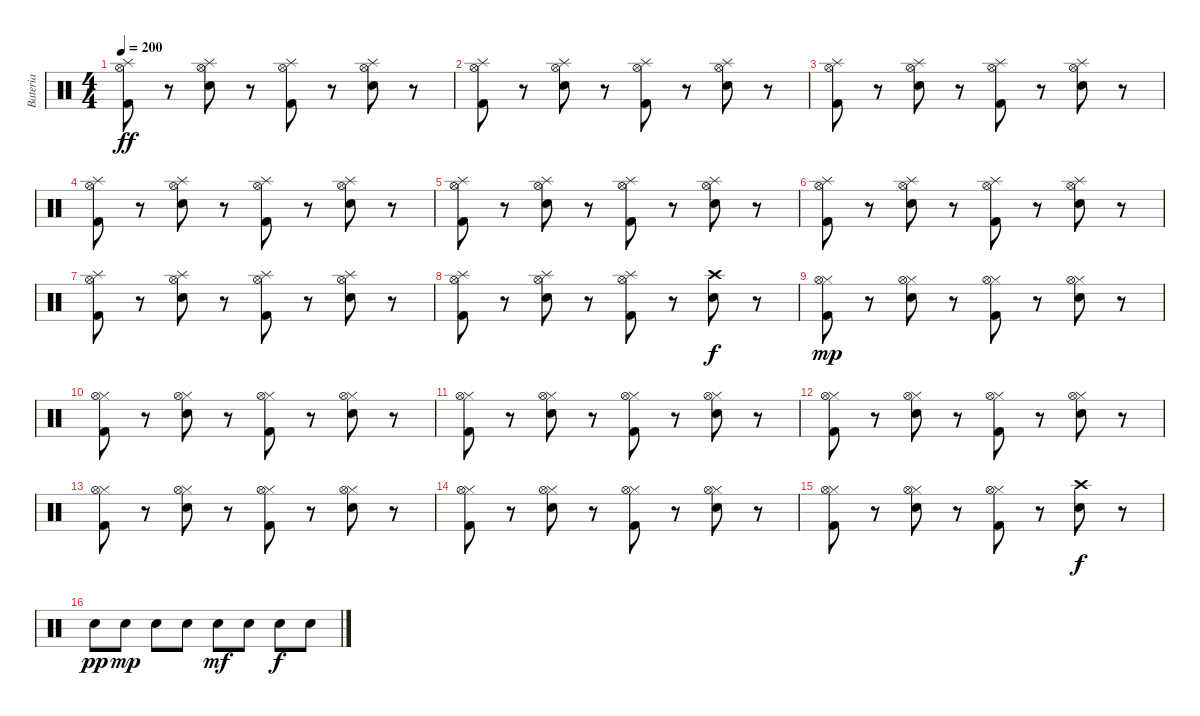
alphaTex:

\track ("Bateria" "Bateria") {instrument percussion}
\staff {score}
\articulation defaults
\ts (4 4)
\tempo 200
\clef neutral
\ks c
("Splash (hit)" "Hi-Hat (open)" "Kick (hit) 2").8{dy ff} r.8 ("Splash (hit)" "Hi-Hat (open)" "Snare (hit) 2").8 r.8 ("Splash (hit)" "Hi-Hat (open)" "Kick (hit) 2").8 r.8 ("Splash (hit)" "Hi-Hat (open)" "Snare (hit) 2").8 r.8 |
("Splash (hit)" "Hi-Hat (open)" "Kick (hit) 2").8 r.8 ("Splash (hit)" "Hi-Hat (open)" "Snare (hit) 2").8 r.8 ("Splash (hit)" "Hi-Hat (open)" "Kick (hit) 2").8 r.8 ("Splash (hit)" "Hi-Hat (open)" "Snare (hit) 2").8 r.8 |
("Splash (hit)" "Hi-Hat (open)" "Kick (hit) 2").8 r.8 ("Splash (hit)" "Hi-Hat (open)" "Snare (hit) 2").8 r.8 ("Splash (hit)" "Hi-Hat (open)" "Kick (hit) 2").8 r.8 ("Splash (hit)" "Hi-Hat (open)" "Snare (hit) 2").8 r.8 |
("Splash (hit)" "Hi-Hat (open)" "Kick (hit) 2").8 r.8 ("Splash (hit)" "Hi-Hat (open)" "Snare (hit) 2").8 r.8 ("Splash (hit)" "Hi-Hat (open)" "Kick (hit) 2").8 r.8 ("Splash (hit)" "Hi-Hat (open)" "Snare (hit) 2").8 r.8 |
("Splash (hit)" "Hi-Hat (open)" "Kick (hit) 2").8 r.8 ("Splash (hit)" "Hi-Hat (open)" "Snare (hit) 2").8 r.8 ("Splash (hit)" "Hi-Hat (open)" "Kick (hit) 2").8 r.8 ("Splash (hit)" "Hi-Hat (open)" "Snare (hit) 2").8 r.8 |
("Splash (hit)" "Hi-Hat (open)" "Kick (hit) 2").8 r.8 ("Splash (hit)" "Hi-Hat (open)" "Snare (hit) 2").8 r.8 ("Splash (hit)" "Hi-Hat (open)" "Kick (hit) 2").8 r.8 ("Splash (hit)" "Hi-Hat (open)" "Snare (hit) 2").8 r.8 |
("Splash (hit)" "Hi-Hat (open)" "Kick (hit) 2").8 r.8 ("Splash (hit)" "Hi-Hat (open)" "Snare (hit) 2").8 r.8 ("Splash (hit)" "Hi-Hat (open)" "Kick (hit) 2").8 r.8 ("Splash (hit)" "Hi-Hat (open)" "Snare (hit) 2").8 r.8 |
("Splash (hit)" "Hi-Hat (open)" "Kick (hit) 2").8 r.8 ("Splash (hit)" "Hi-Hat (open)" "Snare (hit) 2").8 r.8 ("Splash (hit)" "Hi-Hat (open)" "Kick (hit) 2").8 r.8 ("Crash high (hit)" "Snare (hit) 2").8{dy f} r.8 |
("Hi-Hat (closed)" "Hi-Hat (open)" "Kick (hit) 2").8{dy mp} r.8 ("Hi-Hat (closed)" "Hi-Hat (open)" "Snare (hit) 2").8 r.8 ("Hi-Hat (closed)" "Hi-Hat (open)" "Kick (hit) 2").8 r.8 ("Hi-Hat (closed)" "Hi-Hat (open)" "Snare (hit) 2").8 r.8 |
("Hi-Hat (closed)" "Hi-Hat (open)" "Kick (hit) 2").8 r.8 ("Hi-Hat (closed)" "Hi-Hat (open)" "Snare (hit) 2").8 r.8 ("Hi-Hat (closed)" "Hi-Hat (open)" "Kick (hit) 2").8 r.8 ("Hi-Hat (closed)" "Hi-Hat (open)" "Snare (hit) 2").8 r.8 |
("Hi-Hat (closed)" "Hi-Hat (open)" "Kick (hit) 2").8 r.8 ("Hi-Hat (closed)" "Hi-Hat (open)" "Snare (hit) 2").8 r.8 ("Hi-Hat (closed)" "Hi-Hat (open)" "Kick (hit) 2").8 r.8 ("Hi-Hat (closed)" "Hi-Hat (open)" "Snare (hit) 2").8 r.8 |
("Hi-Hat (closed)" "Hi-Hat (open)" "Kick (hit) 2").8 r.8 ("Hi-Hat (closed)" "Hi-Hat (open)" "Snare (hit) 2").8 r.8 ("Hi-Hat (closed)" "Hi-Hat (open)" "Kick (hit) 2").8 r.8 ("Hi-Hat (closed)" "Hi-Hat (open)" "Snare (hit) 2").8 r.8 |
("Hi-Hat (closed)" "Hi-Hat (open)" "Kick (hit) 2").8 r.8 ("Hi-Hat (closed)" "Hi-Hat (open)" "Snare (hit) 2").8 r.8 ("Hi-Hat (closed)" "Hi-Hat (open)" "Kick (hit) 2").8 r.8 ("Hi-Hat (closed)" "Hi-Hat (open)" "Snare (hit) 2").8 r.8 |
("Hi-Hat (closed)" "Hi-Hat (open)" "Kick (hit) 2").8 r.8 ("Hi-Hat (closed)" "Hi-Hat (open)" "Snare (hit) 2").8 r.8 ("Hi-Hat (closed)" "Hi-Hat (open)" "Kick (hit) 2").8 r.8 ("Hi-Hat (closed)" "Hi-Hat (open)" "Snare (hit) 2").8 r.8 |
("Hi-Hat (closed)" "Hi-Hat (open)" "Kick (hit) 2").8 r.8 ("Hi-Hat (closed)" "Hi-Hat (open)" "Snare (hit) 2").8 r.8 ("Hi-Hat (closed)" "Hi-Hat (open)" "Kick (hit) 2").8 r.8 ("Crash high (hit)" "Snare (hit) 2").8{dy f} r.8 |
"Snare (hit) 2".8{dy pp} "Snare (hit) 2".8{dy mp} "Snare (hit) 2".8 "Snare (hit) 2".8 "Snare (hit) 2".8{dy mf} "Snare (hit) 2".8 "Snare (hit) 2".8{dy f} "Snare (hit) 2".8
